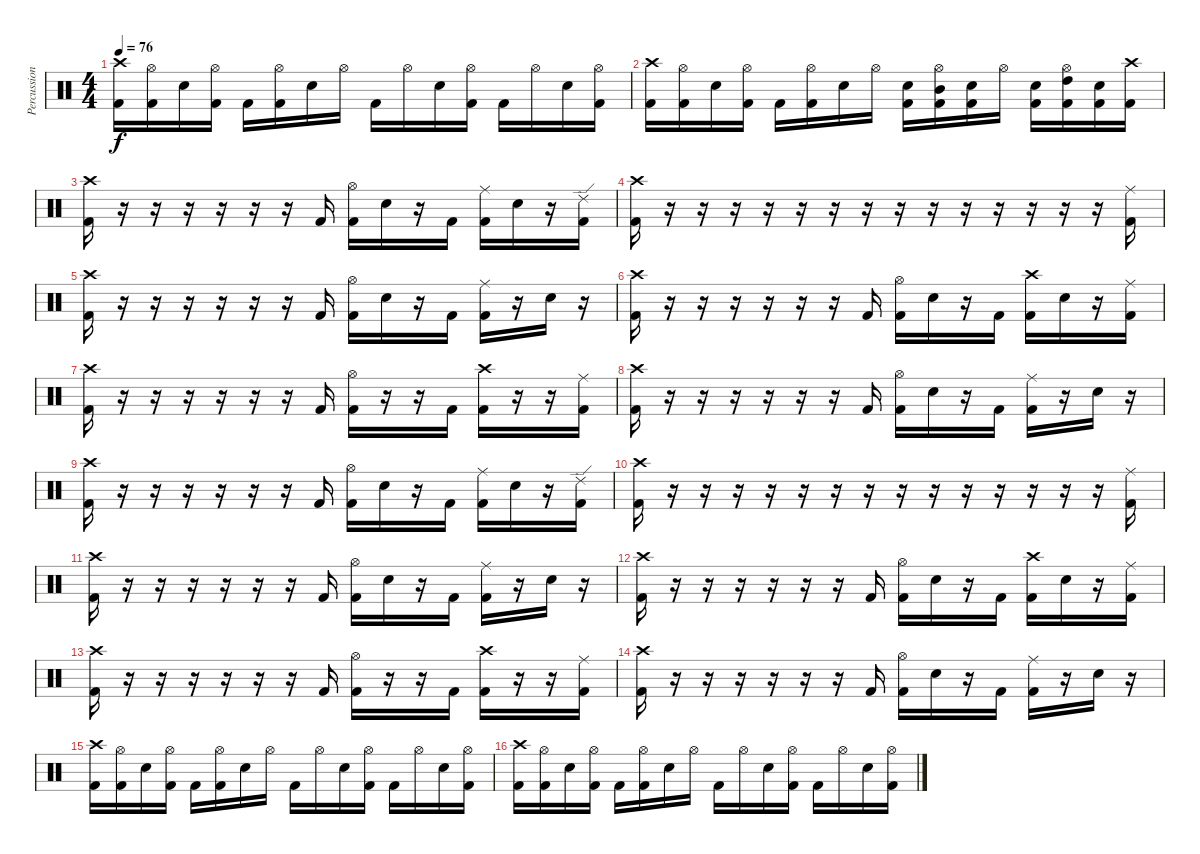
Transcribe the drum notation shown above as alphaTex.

\track ("Percussion" "Percussion") {instrument percussion}
\staff {score}
\articulation defaults
\ts (4 4)
\tempo 76
\clef neutral
\ks c
("Crash high (hit)" "Kick (hit) 2").16{dy f} ("Hi-Hat (open)" "Kick (hit) 2").16 "Electric Snare (hit)".16 ("Hi-Hat (open)" "Kick (hit) 2").16 "Kick (hit) 2".16 ("Hi-Hat (open)" "Kick (hit) 2").16 "Electric Snare (hit)".16 "Hi-Hat (open)".16 "Kick (hit) 2".16 "Hi-Hat (open)".16 "Electric Snare (hit)".16 ("Hi-Hat (open)" "Kick (hit) 2").16 "Kick (hit) 2".16 "Hi-Hat (open)".16 "Electric Snare (hit)".16 ("Hi-Hat (open)" "Kick (hit) 2").16 |
("Crash high (hit)" "Kick (hit) 2").16 ("Hi-Hat (open)" "Kick (hit) 2").16 "Electric Snare (hit)".16 ("Hi-Hat (open)" "Kick (hit) 2").16 "Kick (hit) 2".16 ("Hi-Hat (open)" "Kick (hit) 2").16 "Electric Snare (hit)".16 "Hi-Hat (open)".16 ("Electric Snare (hit)" "Kick (hit) 2").16 ("Hi-Hat (open)" "Mid Tom (hit)" "Kick (hit) 2").16 ("Electric Snare (hit)" "Kick (hit) 2").16 "Hi-Hat (open)".16 ("Electric Snare (hit)" "Kick (hit) 2").16 ("Hi-Hat (open)" "High Tom (hit)" "Kick (hit) 2").16 ("Electric Snare (hit)" "Kick (hit) 2").16 ("Crash high (hit)" "Kick (hit) 2").16 |
("Crash high (hit)" "Kick (hit) 2").16 r.16 r.16 r.16 r.16 r.16 r.16 "Kick (hit) 2".16 ("Hi-Hat (open)" "Kick (hit) 2").16 "Electric Snare (hit)".16 r.16 "Kick (hit) 2".16 ("Ride (middle)" "Kick (hit) 2").16 "Electric Snare (hit)".16 r.16 ("Ride (edge) 2" "Kick (hit) 2").16 |
("Crash high (hit)" "Kick (hit) 2").16 r.16 r.16 r.16 r.16 r.16 r.16 r.16 r.16 r.16 r.16 r.16 r.16 r.16 r.16 ("Ride (middle)" "Kick (hit) 2").16 |
("Crash high (hit)" "Kick (hit) 2").16 r.16 r.16 r.16 r.16 r.16 r.16 "Kick (hit) 2".16 ("Hi-Hat (open)" "Kick (hit) 2").16 "Electric Snare (hit)".16 r.16 "Kick (hit) 2".16 ("Ride (middle)" "Kick (hit) 2").16 r.16 "Electric Snare (hit)".16 r.16 |
("Crash high (hit)" "Kick (hit) 2").16 r.16 r.16 r.16 r.16 r.16 r.16 "Kick (hit) 2".16 ("Hi-Hat (open)" "Kick (hit) 2").16 "Electric Snare (hit)".16 r.16 "Kick (hit) 2".16 ("Crash high (hit)" "Kick (hit) 2").16 "Electric Snare (hit)".16 r.16 ("Ride (middle)" "Kick (hit) 2").16 |
("Crash high (hit)" "Kick (hit) 2").16 r.16 r.16 r.16 r.16 r.16 r.16 "Kick (hit) 2".16 ("Hi-Hat (open)" "Kick (hit) 2").16 r.16 r.16 "Kick (hit) 2".16 ("Crash high (hit)" "Kick (hit) 2").16 r.16 r.16 ("Ride (middle)" "Kick (hit) 2").16 |
("Crash high (hit)" "Kick (hit) 2").16 r.16 r.16 r.16 r.16 r.16 r.16 "Kick (hit) 2".16 ("Hi-Hat (open)" "Kick (hit) 2").16 "Electric Snare (hit)".16 r.16 "Kick (hit) 2".16 ("Ride (middle)" "Kick (hit) 2").16 r.16 "Electric Snare (hit)".16 r.16 |
("Crash high (hit)" "Kick (hit) 2").16 r.16 r.16 r.16 r.16 r.16 r.16 "Kick (hit) 2".16 ("Hi-Hat (open)" "Kick (hit) 2").16 "Electric Snare (hit)".16 r.16 "Kick (hit) 2".16 ("Ride (middle)" "Kick (hit) 2").16 "Electric Snare (hit)".16 r.16 ("Ride (edge) 2" "Kick (hit) 2").16 |
("Crash high (hit)" "Kick (hit) 2").16 r.16 r.16 r.16 r.16 r.16 r.16 r.16 r.16 r.16 r.16 r.16 r.16 r.16 r.16 ("Ride (middle)" "Kick (hit) 2").16 |
("Crash high (hit)" "Kick (hit) 2").16 r.16 r.16 r.16 r.16 r.16 r.16 "Kick (hit) 2".16 ("Hi-Hat (open)" "Kick (hit) 2").16 "Electric Snare (hit)".16 r.16 "Kick (hit) 2".16 ("Ride (middle)" "Kick (hit) 2").16 r.16 "Electric Snare (hit)".16 r.16 |
("Crash high (hit)" "Kick (hit) 2").16 r.16 r.16 r.16 r.16 r.16 r.16 "Kick (hit) 2".16 ("Hi-Hat (open)" "Kick (hit) 2").16 "Electric Snare (hit)".16 r.16 "Kick (hit) 2".16 ("Crash high (hit)" "Kick (hit) 2").16 "Electric Snare (hit)".16 r.16 ("Ride (middle)" "Kick (hit) 2").16 |
("Crash high (hit)" "Kick (hit) 2").16 r.16 r.16 r.16 r.16 r.16 r.16 "Kick (hit) 2".16 ("Hi-Hat (open)" "Kick (hit) 2").16 r.16 r.16 "Kick (hit) 2".16 ("Crash high (hit)" "Kick (hit) 2").16 r.16 r.16 ("Ride (middle)" "Kick (hit) 2").16 |
("Crash high (hit)" "Kick (hit) 2").16 r.16 r.16 r.16 r.16 r.16 r.16 "Kick (hit) 2".16 ("Hi-Hat (open)" "Kick (hit) 2").16 "Electric Snare (hit)".16 r.16 "Kick (hit) 2".16 ("Ride (middle)" "Kick (hit) 2").16 r.16 "Electric Snare (hit)".16 r.16 |
("Crash high (hit)" "Kick (hit) 2").16 ("Hi-Hat (open)" "Kick (hit) 2").16 "Electric Snare (hit)".16 ("Hi-Hat (open)" "Kick (hit) 2").16 "Kick (hit) 2".16 ("Hi-Hat (open)" "Kick (hit) 2").16 "Electric Snare (hit)".16 "Hi-Hat (open)".16 "Kick (hit) 2".16 "Hi-Hat (open)".16 "Electric Snare (hit)".16 ("Hi-Hat (open)" "Kick (hit) 2").16 "Kick (hit) 2".16 "Hi-Hat (open)".16 "Electric Snare (hit)".16 ("Hi-Hat (open)" "Kick (hit) 2").16 |
("Crash high (hit)" "Kick (hit) 2").16 ("Hi-Hat (open)" "Kick (hit) 2").16 "Electric Snare (hit)".16 ("Hi-Hat (open)" "Kick (hit) 2").16 "Kick (hit) 2".16 ("Hi-Hat (open)" "Kick (hit) 2").16 "Electric Snare (hit)".16 "Hi-Hat (open)".16 "Kick (hit) 2".16 "Hi-Hat (open)".16 "Electric Snare (hit)".16 ("Hi-Hat (open)" "Kick (hit) 2").16 "Kick (hit) 2".16 "Hi-Hat (open)".16 "Electric Snare (hit)".16 ("Hi-Hat (open)" "Kick (hit) 2").16
